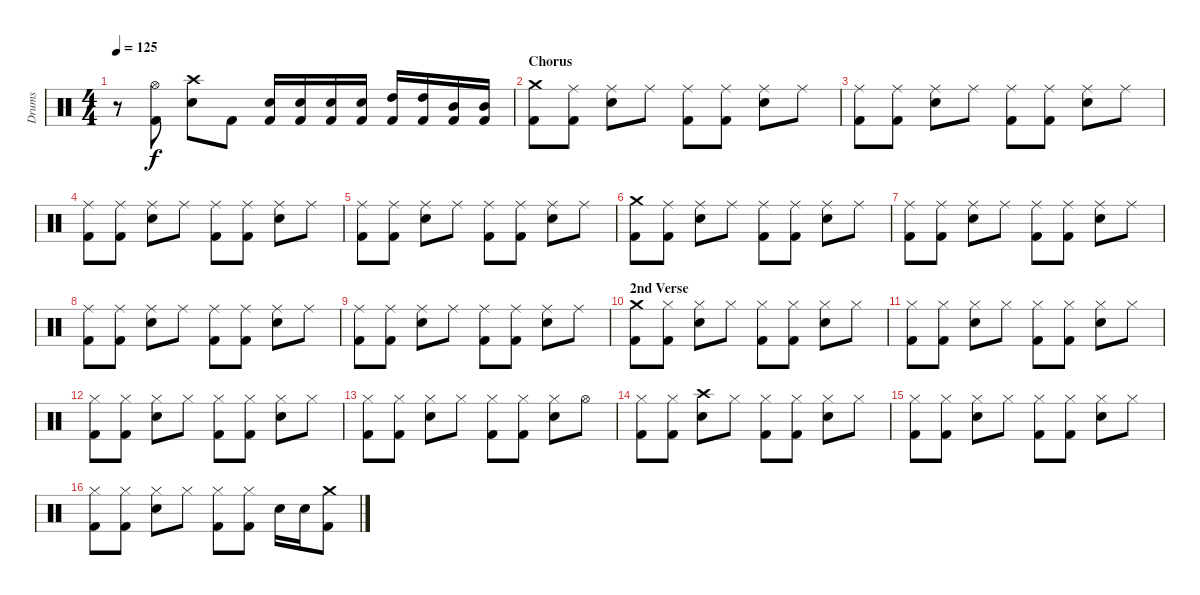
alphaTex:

\track ("Drums" "Drums") {instrument percussion}
\staff {score}
\articulation defaults
\ts (4 4)
\tempo 125
\clef neutral
\ks c
r.8{dy f} ("Hi-Hat (open)" "Kick (hit) 2").8 ("Crash high (hit)" "Snare (hit) 2").8 "Kick (hit) 2".8 ("Snare (hit) 2" "Kick (hit) 2").16 ("Snare (hit) 2" "Kick (hit) 2").16 ("Snare (hit) 2" "Kick (hit) 2").16 ("Snare (hit) 2" "Kick (hit) 2").16 ("High Tom (hit)" "Kick (hit) 2").16 ("High Tom (hit)" "Kick (hit) 2").16 ("Mid Tom (hit)" "Kick (hit) 2").16 ("Mid Tom (hit)" "Kick (hit) 2").16 |
\section ("" "Chorus")
("Crash medium (hit)" "Kick (hit) 2").8 ("Ride (middle)" "Kick (hit) 2").8 ("Ride (middle)" "Snare (hit) 2").8 "Ride (middle)".8 ("Ride (middle)" "Kick (hit) 2").8 ("Ride (middle)" "Kick (hit) 2").8 ("Ride (middle)" "Snare (hit) 2").8 "Ride (middle)".8 |
("Ride (middle)" "Kick (hit) 2").8 ("Ride (middle)" "Kick (hit) 2").8 ("Ride (middle)" "Snare (hit) 2").8 "Ride (middle)".8 ("Ride (middle)" "Kick (hit) 2").8 ("Ride (middle)" "Kick (hit) 2").8 ("Ride (middle)" "Snare (hit) 2").8 "Ride (middle)".8 |
("Ride (middle)" "Kick (hit) 2").8 ("Ride (middle)" "Kick (hit) 2").8 ("Ride (middle)" "Snare (hit) 2").8 "Ride (middle)".8 ("Ride (middle)" "Kick (hit) 2").8 ("Ride (middle)" "Kick (hit) 2").8 ("Ride (middle)" "Snare (hit) 2").8 "Ride (middle)".8 |
("Ride (middle)" "Kick (hit) 2").8 ("Ride (middle)" "Kick (hit) 2").8 ("Ride (middle)" "Snare (hit) 2").8 "Ride (middle)".8 ("Ride (middle)" "Kick (hit) 2").8 ("Ride (middle)" "Kick (hit) 2").8 ("Ride (middle)" "Snare (hit) 2").8 "Ride (middle)".8 |
("Crash medium (hit)" "Kick (hit) 2").8 ("Ride (middle)" "Kick (hit) 2").8 ("Ride (middle)" "Snare (hit) 2").8 "Ride (middle)".8 ("Ride (middle)" "Kick (hit) 2").8 ("Ride (middle)" "Kick (hit) 2").8 ("Ride (middle)" "Snare (hit) 2").8 "Ride (middle)".8 |
("Ride (middle)" "Kick (hit) 2").8 ("Ride (middle)" "Kick (hit) 2").8 ("Ride (middle)" "Snare (hit) 2").8 "Ride (middle)".8 ("Ride (middle)" "Kick (hit) 2").8 ("Ride (middle)" "Kick (hit) 2").8 ("Ride (middle)" "Snare (hit) 2").8 "Ride (middle)".8 |
("Ride (middle)" "Kick (hit) 2").8 ("Ride (middle)" "Kick (hit) 2").8 ("Ride (middle)" "Snare (hit) 2").8 "Ride (middle)".8 ("Ride (middle)" "Kick (hit) 2").8 ("Ride (middle)" "Kick (hit) 2").8 ("Ride (middle)" "Snare (hit) 2").8 "Ride (middle)".8 |
("Ride (middle)" "Kick (hit) 2").8 ("Ride (middle)" "Kick (hit) 2").8 ("Ride (middle)" "Snare (hit) 2").8 "Ride (middle)".8 ("Ride (middle)" "Kick (hit) 2").8 ("Ride (middle)" "Kick (hit) 2").8 ("Ride (middle)" "Snare (hit) 2").8 "Ride (middle)".8 |
\section ("" "2nd Verse")
("Crash medium (hit)" "Kick (hit) 2").8 ("Hi-Hat (closed)" "Kick (hit) 2").8 ("Hi-Hat (closed)" "Snare (hit) 2").8 "Hi-Hat (closed)".8 ("Hi-Hat (closed)" "Kick (hit) 2").8 ("Hi-Hat (closed)" "Kick (hit) 2").8 ("Hi-Hat (closed)" "Snare (hit) 2").8 "Hi-Hat (closed)".8 |
("Hi-Hat (closed)" "Kick (hit) 2").8 ("Hi-Hat (closed)" "Kick (hit) 2").8 ("Hi-Hat (closed)" "Snare (hit) 2").8 "Hi-Hat (closed)".8 ("Hi-Hat (closed)" "Kick (hit) 2").8 ("Hi-Hat (closed)" "Kick (hit) 2").8 ("Hi-Hat (closed)" "Snare (hit) 2").8 "Hi-Hat (closed)".8 |
("Hi-Hat (closed)" "Kick (hit) 2").8 ("Hi-Hat (closed)" "Kick (hit) 2").8 ("Hi-Hat (closed)" "Snare (hit) 2").8 "Hi-Hat (closed)".8 ("Hi-Hat (closed)" "Kick (hit) 2").8 ("Hi-Hat (closed)" "Kick (hit) 2").8 ("Hi-Hat (closed)" "Snare (hit) 2").8 "Hi-Hat (closed)".8 |
("Hi-Hat (closed)" "Kick (hit) 2").8 ("Hi-Hat (closed)" "Kick (hit) 2").8 ("Hi-Hat (closed)" "Snare (hit) 2").8 "Hi-Hat (closed)".8 ("Hi-Hat (closed)" "Kick (hit) 2").8 ("Hi-Hat (closed)" "Kick (hit) 2").8 ("Hi-Hat (closed)" "Snare (hit) 2").8 "Hi-Hat (open)".8 |
("Hi-Hat (closed)" "Kick (hit) 2").8 ("Hi-Hat (closed)" "Kick (hit) 2").8 ("Crash high (hit)" "Snare (hit) 2").8 "Hi-Hat (closed)".8 ("Hi-Hat (closed)" "Kick (hit) 2").8 ("Hi-Hat (closed)" "Kick (hit) 2").8 ("Hi-Hat (closed)" "Snare (hit) 2").8 "Hi-Hat (closed)".8 |
("Hi-Hat (closed)" "Kick (hit) 2").8 ("Hi-Hat (closed)" "Kick (hit) 2").8 ("Hi-Hat (closed)" "Snare (hit) 2").8 "Hi-Hat (closed)".8 ("Hi-Hat (closed)" "Kick (hit) 2").8 ("Hi-Hat (closed)" "Kick (hit) 2").8 ("Hi-Hat (closed)" "Snare (hit) 2").8 "Hi-Hat (closed)".8 |
("Hi-Hat (closed)" "Kick (hit) 2").8 ("Hi-Hat (closed)" "Kick (hit) 2").8 ("Hi-Hat (closed)" "Snare (hit) 2").8 "Hi-Hat (closed)".8 ("Hi-Hat (closed)" "Kick (hit) 2").8 ("Hi-Hat (closed)" "Kick (hit) 2").8 "Snare (hit) 2".16 "Snare (hit) 2".16 ("Crash medium (hit)" "Kick (hit) 2").8
